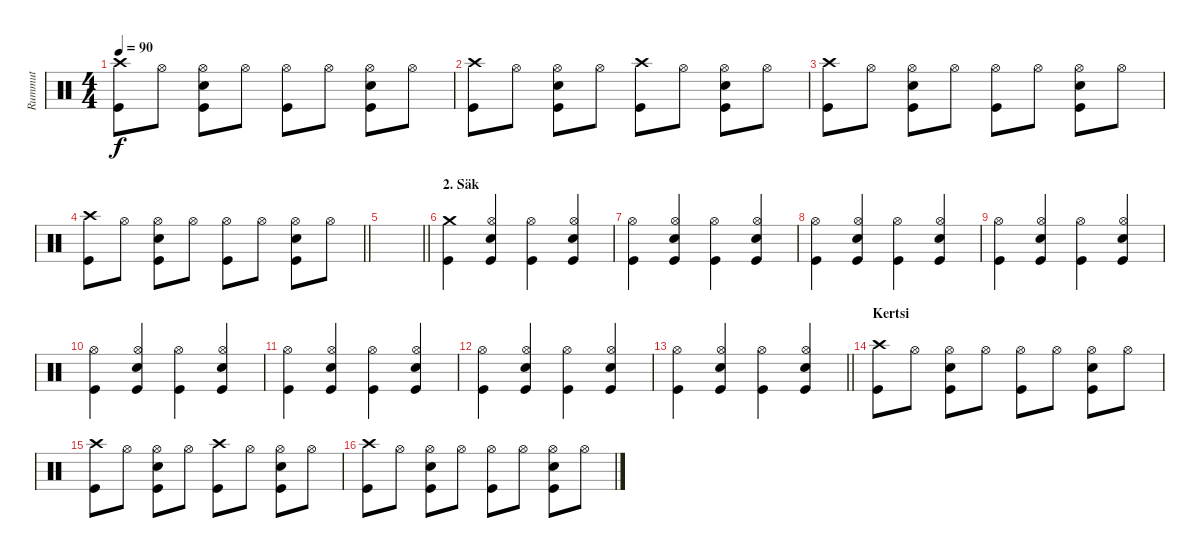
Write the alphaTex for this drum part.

\track ("Rummut" "Rummut") {instrument percussion}
\staff {score}
\articulation defaults
\ts (4 4)
\tempo 90
\clef neutral
\ks c
("Crash high (hit)" "Kick (hit)").8{dy f} "Hi-Hat (open)".8 ("Hi-Hat (open)" "Electric Snare (hit)" "Kick (hit)").8 "Hi-Hat (open)".8 ("Hi-Hat (open)" "Kick (hit)").8 "Hi-Hat (open)".8 ("Hi-Hat (open)" "Electric Snare (hit)" "Kick (hit)").8 "Hi-Hat (open)".8 |
("Crash high (hit)" "Kick (hit)").8 "Hi-Hat (open)".8 ("Hi-Hat (open)" "Electric Snare (hit)" "Kick (hit)").8 "Hi-Hat (open)".8 ("Crash high (hit)" "Kick (hit)").8 "Hi-Hat (open)".8 ("Hi-Hat (open)" "Electric Snare (hit)" "Kick (hit)").8 "Hi-Hat (open)".8 |
("Crash high (hit)" "Kick (hit)").8 "Hi-Hat (open)".8 ("Hi-Hat (open)" "Electric Snare (hit)" "Kick (hit)").8 "Hi-Hat (open)".8 ("Hi-Hat (open)" "Kick (hit)").8 "Hi-Hat (open)".8 ("Hi-Hat (open)" "Electric Snare (hit)" "Kick (hit)").8 "Hi-Hat (open)".8 |
\barLineRight lightlight
("Crash high (hit)" "Kick (hit)").8 "Hi-Hat (open)".8 ("Hi-Hat (open)" "Electric Snare (hit)" "Kick (hit)").8 "Hi-Hat (open)".8 ("Hi-Hat (open)" "Kick (hit)").8 "Hi-Hat (open)".8 ("Hi-Hat (open)" "Electric Snare (hit)" "Kick (hit)").8 "Hi-Hat (open)".8 |
\barLineRight lightlight
|
\section ("" "2. Säk")
("Crash medium (hit)" "Kick (hit)").4 ("Hi-Hat (open)" "Electric Snare (hit)" "Kick (hit)").4 ("Hi-Hat (open)" "Kick (hit)").4 ("Hi-Hat (open)" "Electric Snare (hit)" "Kick (hit)").4 |
("Hi-Hat (open)" "Kick (hit)").4 ("Hi-Hat (open)" "Electric Snare (hit)" "Kick (hit)").4 ("Hi-Hat (open)" "Kick (hit)").4 ("Hi-Hat (open)" "Electric Snare (hit)" "Kick (hit)").4 |
("Hi-Hat (open)" "Kick (hit)").4 ("Hi-Hat (open)" "Electric Snare (hit)" "Kick (hit)").4 ("Hi-Hat (open)" "Kick (hit)").4 ("Hi-Hat (open)" "Electric Snare (hit)" "Kick (hit)").4 |
("Hi-Hat (open)" "Kick (hit)").4 ("Hi-Hat (open)" "Electric Snare (hit)" "Kick (hit)").4 ("Hi-Hat (open)" "Kick (hit)").4 ("Hi-Hat (open)" "Electric Snare (hit)" "Kick (hit)").4 |
("Hi-Hat (open)" "Kick (hit)").4 ("Hi-Hat (open)" "Electric Snare (hit)" "Kick (hit)").4 ("Hi-Hat (open)" "Kick (hit)").4 ("Hi-Hat (open)" "Electric Snare (hit)" "Kick (hit)").4 |
("Hi-Hat (open)" "Kick (hit)").4 ("Hi-Hat (open)" "Electric Snare (hit)" "Kick (hit)").4 ("Hi-Hat (open)" "Kick (hit)").4 ("Hi-Hat (open)" "Electric Snare (hit)" "Kick (hit)").4 |
("Hi-Hat (open)" "Kick (hit)").4 ("Hi-Hat (open)" "Electric Snare (hit)" "Kick (hit)").4 ("Hi-Hat (open)" "Kick (hit)").4 ("Hi-Hat (open)" "Electric Snare (hit)" "Kick (hit)").4 |
\barLineRight lightlight
("Hi-Hat (open)" "Kick (hit)").4 ("Hi-Hat (open)" "Electric Snare (hit)" "Kick (hit)").4 ("Hi-Hat (open)" "Kick (hit)").4 ("Hi-Hat (open)" "Electric Snare (hit)" "Kick (hit)").4 |
\section ("" "Kertsi")
("Crash high (hit)" "Kick (hit)").8 "Hi-Hat (open)".8 ("Hi-Hat (open)" "Electric Snare (hit)" "Kick (hit)").8 "Hi-Hat (open)".8 ("Hi-Hat (open)" "Kick (hit)").8 "Hi-Hat (open)".8 ("Hi-Hat (open)" "Electric Snare (hit)" "Kick (hit)").8 "Hi-Hat (open)".8 |
("Crash high (hit)" "Kick (hit)").8 "Hi-Hat (open)".8 ("Hi-Hat (open)" "Electric Snare (hit)" "Kick (hit)").8 "Hi-Hat (open)".8 ("Crash high (hit)" "Kick (hit)").8 "Hi-Hat (open)".8 ("Hi-Hat (open)" "Electric Snare (hit)" "Kick (hit)").8 "Hi-Hat (open)".8 |
("Crash high (hit)" "Kick (hit)").8 "Hi-Hat (open)".8 ("Hi-Hat (open)" "Electric Snare (hit)" "Kick (hit)").8 "Hi-Hat (open)".8 ("Hi-Hat (open)" "Kick (hit)").8 "Hi-Hat (open)".8 ("Hi-Hat (open)" "Electric Snare (hit)" "Kick (hit)").8 "Hi-Hat (open)".8
